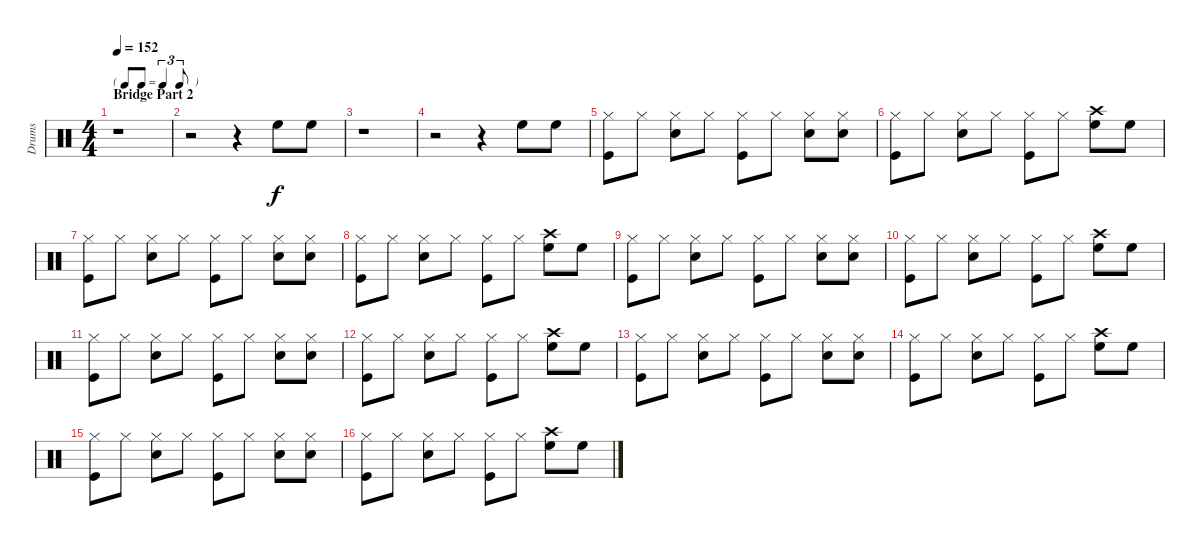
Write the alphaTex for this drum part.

\track ("Drums" "Drums") {instrument percussion}
\staff {score}
\articulation defaults
\ts (4 4)
\tf triplet8th
\section ("" "Bridge Part 2")
\tempo 152
\clef neutral
\ks c
r.1{dy f} |
r.2 r.4 "High Floor Tom (hit)".8 "High Floor Tom (hit)".8 |
r.1 |
r.2 r.4 "High Floor Tom (hit)".8 "High Floor Tom (hit)".8 |
("Hi-Hat (closed)" "Kick (hit)").8 "Hi-Hat (closed)".8 ("Hi-Hat (closed)" "Snare (hit) 2").8 "Hi-Hat (closed)".8 ("Hi-Hat (closed)" "Kick (hit)").8 "Hi-Hat (closed)".8 ("Hi-Hat (closed)" "Snare (hit) 2").8 ("Hi-Hat (closed)" "Snare (hit) 2").8 |
("Hi-Hat (closed)" "Kick (hit)").8 "Hi-Hat (closed)".8 ("Hi-Hat (closed)" "Snare (hit) 2").8 "Hi-Hat (closed)".8 ("Hi-Hat (closed)" "Kick (hit)").8 "Hi-Hat (closed)".8 ("Crash high (hit)" "High Floor Tom (hit)").8 "High Floor Tom (hit)".8 |
("Hi-Hat (closed)" "Kick (hit)").8 "Hi-Hat (closed)".8 ("Hi-Hat (closed)" "Snare (hit) 2").8 "Hi-Hat (closed)".8 ("Hi-Hat (closed)" "Kick (hit)").8 "Hi-Hat (closed)".8 ("Hi-Hat (closed)" "Snare (hit) 2").8 ("Hi-Hat (closed)" "Snare (hit) 2").8 |
("Hi-Hat (closed)" "Kick (hit)").8 "Hi-Hat (closed)".8 ("Hi-Hat (closed)" "Snare (hit) 2").8 "Hi-Hat (closed)".8 ("Hi-Hat (closed)" "Kick (hit)").8 "Hi-Hat (closed)".8 ("Crash high (hit)" "High Floor Tom (hit)").8 "High Floor Tom (hit)".8 |
("Hi-Hat (closed)" "Kick (hit)").8 "Hi-Hat (closed)".8 ("Hi-Hat (closed)" "Snare (hit) 2").8 "Hi-Hat (closed)".8 ("Hi-Hat (closed)" "Kick (hit)").8 "Hi-Hat (closed)".8 ("Hi-Hat (closed)" "Snare (hit) 2").8 ("Hi-Hat (closed)" "Snare (hit) 2").8 |
("Hi-Hat (closed)" "Kick (hit)").8 "Hi-Hat (closed)".8 ("Hi-Hat (closed)" "Snare (hit) 2").8 "Hi-Hat (closed)".8 ("Hi-Hat (closed)" "Kick (hit)").8 "Hi-Hat (closed)".8 ("Crash high (hit)" "High Floor Tom (hit)").8 "High Floor Tom (hit)".8 |
("Hi-Hat (closed)" "Kick (hit)").8 "Hi-Hat (closed)".8 ("Hi-Hat (closed)" "Snare (hit) 2").8 "Hi-Hat (closed)".8 ("Hi-Hat (closed)" "Kick (hit)").8 "Hi-Hat (closed)".8 ("Hi-Hat (closed)" "Snare (hit) 2").8 ("Hi-Hat (closed)" "Snare (hit) 2").8 |
("Hi-Hat (closed)" "Kick (hit)").8 "Hi-Hat (closed)".8 ("Hi-Hat (closed)" "Snare (hit) 2").8 "Hi-Hat (closed)".8 ("Hi-Hat (closed)" "Kick (hit)").8 "Hi-Hat (closed)".8 ("Crash high (hit)" "High Floor Tom (hit)").8 "High Floor Tom (hit)".8 |
("Hi-Hat (closed)" "Kick (hit)").8 "Hi-Hat (closed)".8 ("Hi-Hat (closed)" "Snare (hit) 2").8 "Hi-Hat (closed)".8 ("Hi-Hat (closed)" "Kick (hit)").8 "Hi-Hat (closed)".8 ("Hi-Hat (closed)" "Snare (hit) 2").8 ("Hi-Hat (closed)" "Snare (hit) 2").8 |
("Hi-Hat (closed)" "Kick (hit)").8 "Hi-Hat (closed)".8 ("Hi-Hat (closed)" "Snare (hit) 2").8 "Hi-Hat (closed)".8 ("Hi-Hat (closed)" "Kick (hit)").8 "Hi-Hat (closed)".8 ("Crash high (hit)" "High Floor Tom (hit)").8 "High Floor Tom (hit)".8 |
("Hi-Hat (closed)" "Kick (hit)").8 "Hi-Hat (closed)".8 ("Hi-Hat (closed)" "Snare (hit) 2").8 "Hi-Hat (closed)".8 ("Hi-Hat (closed)" "Kick (hit)").8 "Hi-Hat (closed)".8 ("Hi-Hat (closed)" "Snare (hit) 2").8 ("Hi-Hat (closed)" "Snare (hit) 2").8 |
("Hi-Hat (closed)" "Kick (hit)").8 "Hi-Hat (closed)".8 ("Hi-Hat (closed)" "Snare (hit) 2").8 "Hi-Hat (closed)".8 ("Hi-Hat (closed)" "Kick (hit)").8 "Hi-Hat (closed)".8 ("Crash high (hit)" "High Floor Tom (hit)").8 "High Floor Tom (hit)".8
